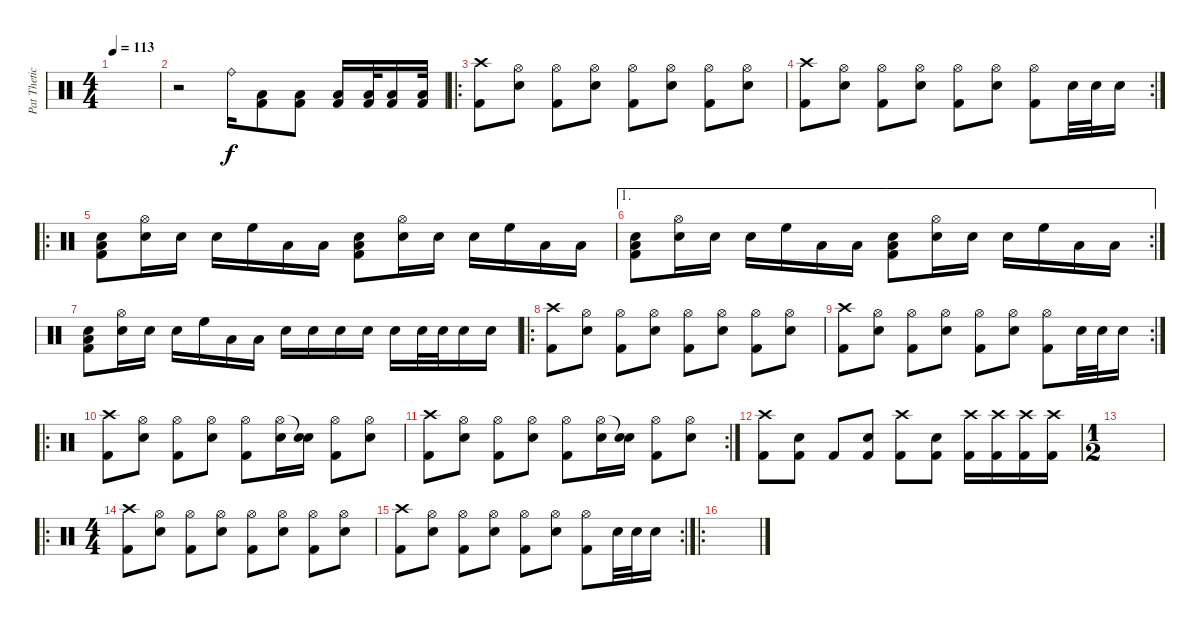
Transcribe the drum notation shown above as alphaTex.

\track ("Pat Thetic" "Pat Thetic") {instrument percussion}
\staff {score}
\articulation defaults
\ts (4 4)
\tempo 113
\clef neutral
\ks c
|
r.2 "Ride (bell)".16 ("Kick (hit) 2" "Low Floor Tom (hit)").8 ("Kick (hit) 2" "Low Floor Tom (hit)").8 ("Kick (hit) 2" "Low Floor Tom (hit)").16 ("Kick (hit) 2" "Low Floor Tom (hit)").32 ("Kick (hit) 2" "Low Floor Tom (hit)").16 ("Kick (hit) 2" "Low Floor Tom (hit)").32 |
\ro
("Crash high (hit)" "Kick (hit) 2").8 ("Snare (hit) 2" "Hi-Hat (open)").8 ("Kick (hit) 2" "Hi-Hat (open)").8 ("Snare (hit) 2" "Hi-Hat (open)").8 ("Kick (hit) 2" "Hi-Hat (open)").8 ("Snare (hit) 2" "Hi-Hat (open)").8 ("Kick (hit) 2" "Hi-Hat (open)").8 ("Snare (hit) 2" "Hi-Hat (open)").8 |
\rc 2
("Crash high (hit)" "Kick (hit) 2").8 ("Snare (hit) 2" "Hi-Hat (open)").8 ("Kick (hit) 2" "Hi-Hat (open)").8 ("Snare (hit) 2" "Hi-Hat (open)").8 ("Kick (hit) 2" "Hi-Hat (open)").8 ("Snare (hit) 2" "Hi-Hat (open)").8 ("Kick (hit) 2" "Hi-Hat (open)").8 "Snare (hit) 2".32 "Snare (hit) 2".32 "Snare (hit) 2".16 |
\ro
("Snare (hit) 2" "Low Floor Tom (hit)" "Kick (hit) 2").8 ("Hi-Hat (open)" "Snare (hit) 2").16 "Snare (hit) 2".16 "Snare (hit) 2".16 "High Floor Tom (hit)".16 "Low Tom (hit)".16 "Low Floor Tom (hit)".16 ("Snare (hit) 2" "Low Floor Tom (hit)" "Kick (hit) 2").8 ("Hi-Hat (open)" "Snare (hit) 2").16 "Snare (hit) 2".16 "Snare (hit) 2".16 "High Floor Tom (hit)".16 "Low Tom (hit)".16 "Low Floor Tom (hit)".16 |
\ae 1
\rc 2
("Snare (hit) 2" "Low Floor Tom (hit)" "Kick (hit) 2").8 ("Hi-Hat (open)" "Snare (hit) 2").16 "Snare (hit) 2".16 "Snare (hit) 2".16 "High Floor Tom (hit)".16 "Low Tom (hit)".16 "Low Floor Tom (hit)".16 ("Snare (hit) 2" "Low Floor Tom (hit)" "Kick (hit) 2").8 ("Hi-Hat (open)" "Snare (hit) 2").16 "Snare (hit) 2".16 "Snare (hit) 2".16 "High Floor Tom (hit)".16 "Low Tom (hit)".16 "Low Floor Tom (hit)".16 |
("Snare (hit) 2" "Low Floor Tom (hit)" "Kick (hit) 2").8 ("Hi-Hat (open)" "Snare (hit) 2").16 "Snare (hit) 2".16 "Snare (hit) 2".16 "High Floor Tom (hit)".16 "Low Tom (hit)".16 "Low Floor Tom (hit)".16 "Snare (hit) 2".16 "Snare (hit) 2".16 "Snare (hit) 2".16 "Snare (hit) 2".16 "Snare (hit) 2".16 "Snare (hit) 2".32 "Snare (hit) 2".32 "Snare (hit) 2".16 "Snare (hit) 2".16 |
\ro
("Crash high (hit)" "Kick (hit) 2").8 ("Snare (hit) 2" "Hi-Hat (open)").8 ("Kick (hit) 2" "Hi-Hat (open)").8 ("Snare (hit) 2" "Hi-Hat (open)").8 ("Kick (hit) 2" "Hi-Hat (open)").8 ("Snare (hit) 2" "Hi-Hat (open)").8 ("Kick (hit) 2" "Hi-Hat (open)").8 ("Snare (hit) 2" "Hi-Hat (open)").8 |
\rc 2
("Crash high (hit)" "Kick (hit) 2").8 ("Snare (hit) 2" "Hi-Hat (open)").8 ("Kick (hit) 2" "Hi-Hat (open)").8 ("Snare (hit) 2" "Hi-Hat (open)").8 ("Kick (hit) 2" "Hi-Hat (open)").8 ("Snare (hit) 2" "Hi-Hat (open)").8 ("Kick (hit) 2" "Hi-Hat (open)").8 "Snare (hit) 2".32 "Snare (hit) 2".32 "Snare (hit) 2".16 |
\ro
("Crash high (hit)" "Kick (hit) 2").8 ("Snare (hit) 2" "Hi-Hat (open)").8 ("Kick (hit) 2" "Hi-Hat (open)").8 ("Snare (hit) 2" "Hi-Hat (open)").8 ("Kick (hit) 2" "Hi-Hat (open)").8 ("Snare (hit) 2" "Hi-Hat (open)").16 ("Snare (hit) 2" "Snare (hit)"{t}).16 ("Kick (hit) 2" "Hi-Hat (open)").8 ("Snare (hit) 2" "Hi-Hat (open)").8 |
\rc 2
("Crash high (hit)" "Kick (hit) 2").8 ("Snare (hit) 2" "Hi-Hat (open)").8 ("Kick (hit) 2" "Hi-Hat (open)").8 ("Snare (hit) 2" "Hi-Hat (open)").8 ("Kick (hit) 2" "Hi-Hat (open)").8 ("Snare (hit) 2" "Hi-Hat (open)").16 ("Snare (hit) 2" "Snare (hit)"{t}).16 ("Kick (hit) 2" "Hi-Hat (open)").8 ("Snare (hit) 2" "Hi-Hat (open)").8 |
("Crash high (hit)" "Kick (hit) 2").8 ("Snare (hit) 2" "Kick (hit) 2").8 "Kick (hit) 2".8 ("Snare (hit) 2" "Kick (hit) 2").8 ("Crash high (hit)" "Kick (hit) 2").8 ("Snare (hit) 2" "Kick (hit) 2").8 ("Crash high (hit)" "Kick (hit) 2").16 ("Crash high (hit)" "Kick (hit) 2").16 ("Crash high (hit)" "Kick (hit) 2").16 ("Crash high (hit)" "Kick (hit) 2").16 |
\ts (1 2)
|
\ro
\ts (4 4)
("Crash high (hit)" "Kick (hit) 2").8 ("Snare (hit) 2" "Hi-Hat (open)").8 ("Kick (hit) 2" "Hi-Hat (open)").8 ("Snare (hit) 2" "Hi-Hat (open)").8 ("Kick (hit) 2" "Hi-Hat (open)").8 ("Snare (hit) 2" "Hi-Hat (open)").8 ("Kick (hit) 2" "Hi-Hat (open)").8 ("Snare (hit) 2" "Hi-Hat (open)").8 |
\rc 2
("Crash high (hit)" "Kick (hit) 2").8 ("Snare (hit) 2" "Hi-Hat (open)").8 ("Kick (hit) 2" "Hi-Hat (open)").8 ("Snare (hit) 2" "Hi-Hat (open)").8 ("Kick (hit) 2" "Hi-Hat (open)").8 ("Snare (hit) 2" "Hi-Hat (open)").8 ("Kick (hit) 2" "Hi-Hat (open)").8 "Snare (hit) 2".32 "Snare (hit) 2".32 "Snare (hit) 2".16 |
\ro
